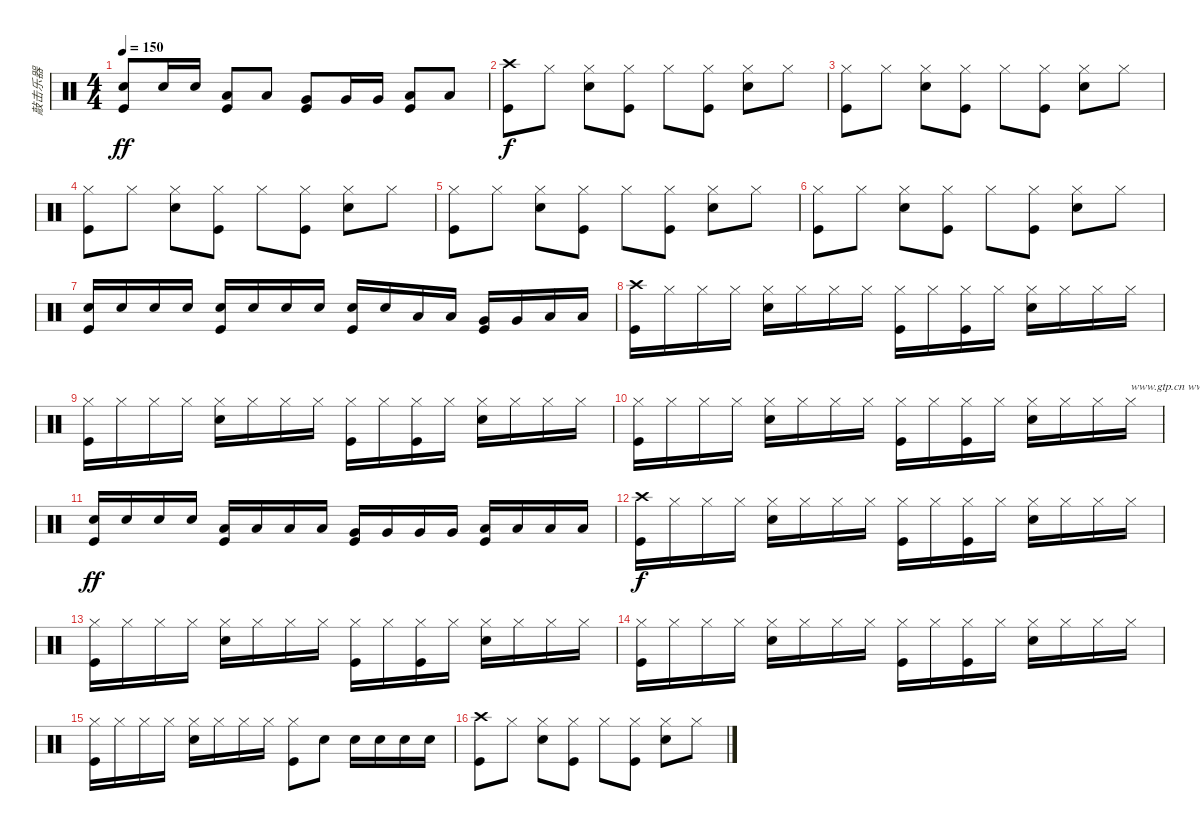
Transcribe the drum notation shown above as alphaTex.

\track ("敲击乐器" "敲击乐器") {instrument percussion}
\staff {score}
\articulation defaults
\ts (4 4)
\tempo 150
\clef neutral
\ks c
("Snare (hit) 2" "Kick (hit)").8{dy ff} "Snare (hit) 2".16 "Snare (hit) 2".16 ("Low Tom (hit)" "Kick (hit)").8 "Low Tom (hit)".8 ("Very Low Tom (hit)" "Kick (hit)").8 "Very Low Tom (hit)".16 "Very Low Tom (hit)".16 ("Low Floor Tom (hit)" "Kick (hit)").8 "Low Floor Tom (hit)".8 |
("Crash high (hit)" "Kick (hit)").8{dy f} "Hi-Hat (closed)".8 ("Hi-Hat (closed)" "Snare (hit) 2").8 ("Hi-Hat (closed)" "Kick (hit)").8 "Hi-Hat (closed)".8 ("Hi-Hat (closed)" "Kick (hit)").8 ("Hi-Hat (closed)" "Snare (hit) 2").8 "Hi-Hat (closed)".8 |
("Hi-Hat (closed)" "Kick (hit)").8 "Hi-Hat (closed)".8 ("Hi-Hat (closed)" "Snare (hit) 2").8 ("Hi-Hat (closed)" "Kick (hit)").8 "Hi-Hat (closed)".8 ("Hi-Hat (closed)" "Kick (hit)").8 ("Hi-Hat (closed)" "Snare (hit) 2").8 "Hi-Hat (closed)".8 |
("Hi-Hat (closed)" "Kick (hit)").8 "Hi-Hat (closed)".8 ("Hi-Hat (closed)" "Snare (hit) 2").8 ("Hi-Hat (closed)" "Kick (hit)").8 "Hi-Hat (closed)".8 ("Hi-Hat (closed)" "Kick (hit)").8 ("Hi-Hat (closed)" "Snare (hit) 2").8 "Hi-Hat (closed)".8 |
("Hi-Hat (closed)" "Kick (hit)").8 "Hi-Hat (closed)".8 ("Hi-Hat (closed)" "Snare (hit) 2").8 ("Hi-Hat (closed)" "Kick (hit)").8 "Hi-Hat (closed)".8 ("Hi-Hat (closed)" "Kick (hit)").8 ("Hi-Hat (closed)" "Snare (hit) 2").8 "Hi-Hat (closed)".8 |
("Hi-Hat (closed)" "Kick (hit)").8 "Hi-Hat (closed)".8 ("Hi-Hat (closed)" "Snare (hit) 2").8 ("Hi-Hat (closed)" "Kick (hit)").8 "Hi-Hat (closed)".8 ("Hi-Hat (closed)" "Kick (hit)").8 ("Hi-Hat (closed)" "Snare (hit) 2").8 "Hi-Hat (closed)".8 |
("Snare (hit) 2" "Kick (hit)").16 "Snare (hit) 2".16 "Snare (hit) 2".16 "Snare (hit) 2".16 ("Snare (hit) 2" "Kick (hit)").16 "Snare (hit) 2".16 "Snare (hit) 2".16 "Snare (hit) 2".16 ("Snare (hit) 2" "Kick (hit)").16 "Snare (hit) 2".16 "Low Tom (hit)".16 "Low Tom (hit)".16 ("Very Low Tom (hit)" "Kick (hit)").16 "Very Low Tom (hit)".16 "Low Floor Tom (hit)".16 "Low Floor Tom (hit)".16 |
("Crash high (hit)" "Kick (hit)").16 "Hi-Hat (closed)".16 "Hi-Hat (closed)".16 "Hi-Hat (closed)".16 ("Hi-Hat (closed)" "Snare (hit) 2").16 "Hi-Hat (closed)".16 "Hi-Hat (closed)".16 "Hi-Hat (closed)".16 ("Hi-Hat (closed)" "Kick (hit)").16 "Hi-Hat (closed)".16 ("Hi-Hat (closed)" "Kick (hit)").16 "Hi-Hat (closed)".16 ("Hi-Hat (closed)" "Snare (hit) 2").16 "Hi-Hat (closed)".16 "Hi-Hat (closed)".16 "Hi-Hat (closed)".16 |
("Hi-Hat (closed)" "Kick (hit)").16 "Hi-Hat (closed)".16 "Hi-Hat (closed)".16 "Hi-Hat (closed)".16 ("Hi-Hat (closed)" "Snare (hit) 2").16 "Hi-Hat (closed)".16 "Hi-Hat (closed)".16 "Hi-Hat (closed)".16 ("Hi-Hat (closed)" "Kick (hit)").16 "Hi-Hat (closed)".16 ("Hi-Hat (closed)" "Kick (hit)").16 "Hi-Hat (closed)".16 ("Hi-Hat (closed)" "Snare (hit) 2").16 "Hi-Hat (closed)".16 "Hi-Hat (closed)".16 "Hi-Hat (closed)".16 |
("Hi-Hat (closed)" "Kick (hit)").16 "Hi-Hat (closed)".16 "Hi-Hat (closed)".16 "Hi-Hat (closed)".16 ("Hi-Hat (closed)" "Snare (hit) 2").16 "Hi-Hat (closed)".16 "Hi-Hat (closed)".16 "Hi-Hat (closed)".16 ("Hi-Hat (closed)" "Kick (hit)").16 "Hi-Hat (closed)".16 ("Hi-Hat (closed)" "Kick (hit)").16 "Hi-Hat (closed)".16 ("Hi-Hat (closed)" "Snare (hit) 2").16 "Hi-Hat (closed)".16 "Hi-Hat (closed)".16 "Hi-Hat (closed)".16{txt "www.gtp.cn www.51gtp.com联合为您提供优秀的GTP!"} |
("Snare (hit) 2" "Kick (hit)").16{dy ff} "Snare (hit) 2".16 "Snare (hit) 2".16 "Snare (hit) 2".16 ("Low Tom (hit)" "Kick (hit)").16 "Low Tom (hit)".16 "Low Tom (hit)".16 "Low Tom (hit)".16 ("Very Low Tom (hit)" "Kick (hit)").16 "Very Low Tom (hit)".16 "Very Low Tom (hit)".16 "Very Low Tom (hit)".16 ("Low Floor Tom (hit)" "Kick (hit)").16 "Low Floor Tom (hit)".16 "Low Floor Tom (hit)".16 "Low Floor Tom (hit)".16 |
("Crash high (hit)" "Kick (hit)").16{dy f} "Hi-Hat (closed)".16 "Hi-Hat (closed)".16 "Hi-Hat (closed)".16 ("Hi-Hat (closed)" "Snare (hit) 2").16 "Hi-Hat (closed)".16 "Hi-Hat (closed)".16 "Hi-Hat (closed)".16 ("Hi-Hat (closed)" "Kick (hit)").16 "Hi-Hat (closed)".16 ("Hi-Hat (closed)" "Kick (hit)").16 "Hi-Hat (closed)".16 ("Hi-Hat (closed)" "Snare (hit) 2").16 "Hi-Hat (closed)".16 "Hi-Hat (closed)".16 "Hi-Hat (closed)".16 |
("Hi-Hat (closed)" "Kick (hit)").16 "Hi-Hat (closed)".16 "Hi-Hat (closed)".16 "Hi-Hat (closed)".16 ("Hi-Hat (closed)" "Snare (hit) 2").16 "Hi-Hat (closed)".16 "Hi-Hat (closed)".16 "Hi-Hat (closed)".16 ("Hi-Hat (closed)" "Kick (hit)").16 "Hi-Hat (closed)".16 ("Hi-Hat (closed)" "Kick (hit)").16 "Hi-Hat (closed)".16 ("Hi-Hat (closed)" "Snare (hit) 2").16 "Hi-Hat (closed)".16 "Hi-Hat (closed)".16 "Hi-Hat (closed)".16 |
("Hi-Hat (closed)" "Kick (hit)").16 "Hi-Hat (closed)".16 "Hi-Hat (closed)".16 "Hi-Hat (closed)".16 ("Hi-Hat (closed)" "Snare (hit) 2").16 "Hi-Hat (closed)".16 "Hi-Hat (closed)".16 "Hi-Hat (closed)".16 ("Hi-Hat (closed)" "Kick (hit)").16 "Hi-Hat (closed)".16 ("Hi-Hat (closed)" "Kick (hit)").16 "Hi-Hat (closed)".16 ("Hi-Hat (closed)" "Snare (hit) 2").16 "Hi-Hat (closed)".16 "Hi-Hat (closed)".16 "Hi-Hat (closed)".16 |
("Hi-Hat (closed)" "Kick (hit)").16 "Hi-Hat (closed)".16 "Hi-Hat (closed)".16 "Hi-Hat (closed)".16 ("Hi-Hat (closed)" "Snare (hit) 2").16 "Hi-Hat (closed)".16 "Hi-Hat (closed)".16 "Hi-Hat (closed)".16 ("Hi-Hat (closed)" "Kick (hit)").8 "Snare (hit) 2".8 "Snare (hit) 2".16 "Snare (hit) 2".16 "Snare (hit) 2".16 "Snare (hit) 2".16 |
("Crash high (hit)" "Kick (hit)").8 "Hi-Hat (closed)".8 ("Hi-Hat (closed)" "Snare (hit) 2").8 ("Hi-Hat (closed)" "Kick (hit)").8 "Hi-Hat (closed)".8 ("Hi-Hat (closed)" "Kick (hit)").8 ("Hi-Hat (closed)" "Snare (hit) 2").8 "Hi-Hat (closed)".8
